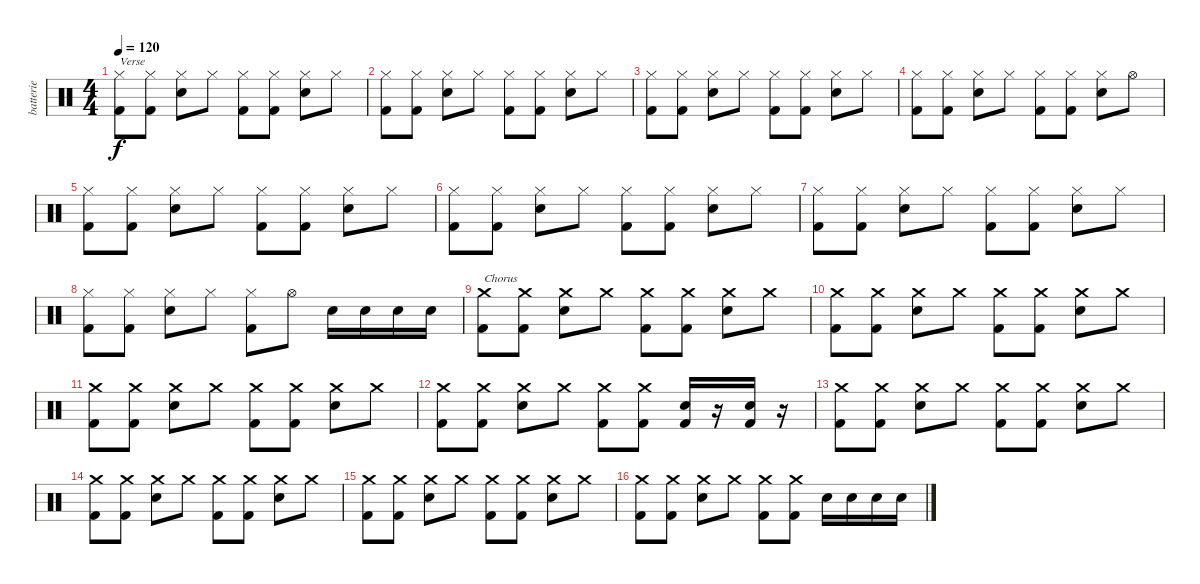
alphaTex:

\track ("batterie" "batterie") {instrument percussion}
\staff {score}
\articulation defaults
\ts (4 4)
\tempo 120
\clef neutral
\ks c
("Hi-Hat (closed)" "Kick (hit) 2").8{txt "Verse" dy f} ("Hi-Hat (closed)" "Kick (hit) 2").8 ("Hi-Hat (closed)" "Electric Snare (hit)").8 "Hi-Hat (closed)".8 ("Hi-Hat (closed)" "Kick (hit) 2").8 ("Hi-Hat (closed)" "Kick (hit) 2").8 ("Hi-Hat (closed)" "Electric Snare (hit)").8 "Hi-Hat (closed)".8 |
("Hi-Hat (closed)" "Kick (hit) 2").8 ("Hi-Hat (closed)" "Kick (hit) 2").8 ("Hi-Hat (closed)" "Electric Snare (hit)").8 "Hi-Hat (closed)".8 ("Hi-Hat (closed)" "Kick (hit) 2").8 ("Hi-Hat (closed)" "Kick (hit) 2").8 ("Hi-Hat (closed)" "Electric Snare (hit)").8 "Hi-Hat (closed)".8 |
("Hi-Hat (closed)" "Kick (hit) 2").8 ("Hi-Hat (closed)" "Kick (hit) 2").8 ("Hi-Hat (closed)" "Electric Snare (hit)").8 "Hi-Hat (closed)".8 ("Hi-Hat (closed)" "Kick (hit) 2").8 ("Hi-Hat (closed)" "Kick (hit) 2").8 ("Hi-Hat (closed)" "Electric Snare (hit)").8 "Hi-Hat (closed)".8 |
("Hi-Hat (closed)" "Kick (hit) 2").8 ("Hi-Hat (closed)" "Kick (hit) 2").8 ("Hi-Hat (closed)" "Electric Snare (hit)").8 "Hi-Hat (closed)".8 ("Hi-Hat (closed)" "Kick (hit) 2").8 ("Hi-Hat (closed)" "Kick (hit) 2").8 ("Hi-Hat (closed)" "Electric Snare (hit)").8 "Hi-Hat (open)".8 |
("Hi-Hat (closed)" "Kick (hit) 2").8 ("Hi-Hat (closed)" "Kick (hit) 2").8 ("Hi-Hat (closed)" "Electric Snare (hit)").8 "Hi-Hat (closed)".8 ("Hi-Hat (closed)" "Kick (hit) 2").8 ("Hi-Hat (closed)" "Kick (hit) 2").8 ("Hi-Hat (closed)" "Electric Snare (hit)").8 "Hi-Hat (closed)".8 |
("Hi-Hat (closed)" "Kick (hit) 2").8 ("Hi-Hat (closed)" "Kick (hit) 2").8 ("Hi-Hat (closed)" "Electric Snare (hit)").8 "Hi-Hat (closed)".8 ("Hi-Hat (closed)" "Kick (hit) 2").8 ("Hi-Hat (closed)" "Kick (hit) 2").8 ("Hi-Hat (closed)" "Electric Snare (hit)").8 "Hi-Hat (closed)".8 |
("Hi-Hat (closed)" "Kick (hit) 2").8 ("Hi-Hat (closed)" "Kick (hit) 2").8 ("Hi-Hat (closed)" "Electric Snare (hit)").8 "Hi-Hat (closed)".8 ("Hi-Hat (closed)" "Kick (hit) 2").8 ("Hi-Hat (closed)" "Kick (hit) 2").8 ("Hi-Hat (closed)" "Electric Snare (hit)").8 "Hi-Hat (closed)".8 |
("Hi-Hat (closed)" "Kick (hit) 2").8 ("Hi-Hat (closed)" "Kick (hit) 2").8 ("Hi-Hat (closed)" "Electric Snare (hit)").8 "Hi-Hat (closed)".8 ("Hi-Hat (closed)" "Kick (hit) 2").8 "Hi-Hat (open)".8 "Electric Snare (hit)".16 "Electric Snare (hit)".16 "Electric Snare (hit)".16 "Electric Snare (hit)".16 |
("Crash medium (hit)" "Kick (hit) 2").8{txt "Chorus"} ("Crash medium (hit)" "Kick (hit) 2").8 ("Crash medium (hit)" "Electric Snare (hit)").8 "Crash medium (hit)".8 ("Crash medium (hit)" "Kick (hit) 2").8 ("Crash medium (hit)" "Kick (hit) 2").8 ("Crash medium (hit)" "Electric Snare (hit)").8 "Crash medium (hit)".8 |
("Crash medium (hit)" "Kick (hit) 2").8 ("Crash medium (hit)" "Kick (hit) 2").8 ("Crash medium (hit)" "Electric Snare (hit)").8 "Crash medium (hit)".8 ("Crash medium (hit)" "Kick (hit) 2").8 ("Crash medium (hit)" "Kick (hit) 2").8 ("Crash medium (hit)" "Electric Snare (hit)").8 "Crash medium (hit)".8 |
("Crash medium (hit)" "Kick (hit) 2").8 ("Crash medium (hit)" "Kick (hit) 2").8 ("Crash medium (hit)" "Electric Snare (hit)").8 "Crash medium (hit)".8 ("Crash medium (hit)" "Kick (hit) 2").8 ("Crash medium (hit)" "Kick (hit) 2").8 ("Crash medium (hit)" "Electric Snare (hit)").8 "Crash medium (hit)".8 |
("Crash medium (hit)" "Kick (hit) 2").8 ("Crash medium (hit)" "Kick (hit) 2").8 ("Crash medium (hit)" "Electric Snare (hit)").8 "Crash medium (hit)".8 ("Crash medium (hit)" "Kick (hit) 2").8 ("Crash medium (hit)" "Kick (hit) 2").8 ("Kick (hit) 2" "Electric Snare (hit)").16 r.16 ("Kick (hit) 2" "Electric Snare (hit)").16 r.16 |
("Crash medium (hit)" "Kick (hit) 2").8 ("Crash medium (hit)" "Kick (hit) 2").8 ("Crash medium (hit)" "Electric Snare (hit)").8 "Crash medium (hit)".8 ("Crash medium (hit)" "Kick (hit) 2").8 ("Crash medium (hit)" "Kick (hit) 2").8 ("Crash medium (hit)" "Electric Snare (hit)").8 "Crash medium (hit)".8 |
("Crash medium (hit)" "Kick (hit) 2").8 ("Crash medium (hit)" "Kick (hit) 2").8 ("Crash medium (hit)" "Electric Snare (hit)").8 "Crash medium (hit)".8 ("Crash medium (hit)" "Kick (hit) 2").8 ("Crash medium (hit)" "Kick (hit) 2").8 ("Crash medium (hit)" "Electric Snare (hit)").8 "Crash medium (hit)".8 |
("Crash medium (hit)" "Kick (hit) 2").8 ("Crash medium (hit)" "Kick (hit) 2").8 ("Crash medium (hit)" "Electric Snare (hit)").8 "Crash medium (hit)".8 ("Crash medium (hit)" "Kick (hit) 2").8 ("Crash medium (hit)" "Kick (hit) 2").8 ("Crash medium (hit)" "Electric Snare (hit)").8 "Crash medium (hit)".8 |
("Crash medium (hit)" "Kick (hit) 2").8 ("Crash medium (hit)" "Kick (hit) 2").8 ("Crash medium (hit)" "Electric Snare (hit)").8 "Crash medium (hit)".8 ("Crash medium (hit)" "Kick (hit) 2").8 ("Crash medium (hit)" "Kick (hit) 2").8 "Electric Snare (hit)".16 "Electric Snare (hit)".16 "Electric Snare (hit)".16 "Electric Snare (hit)".16
